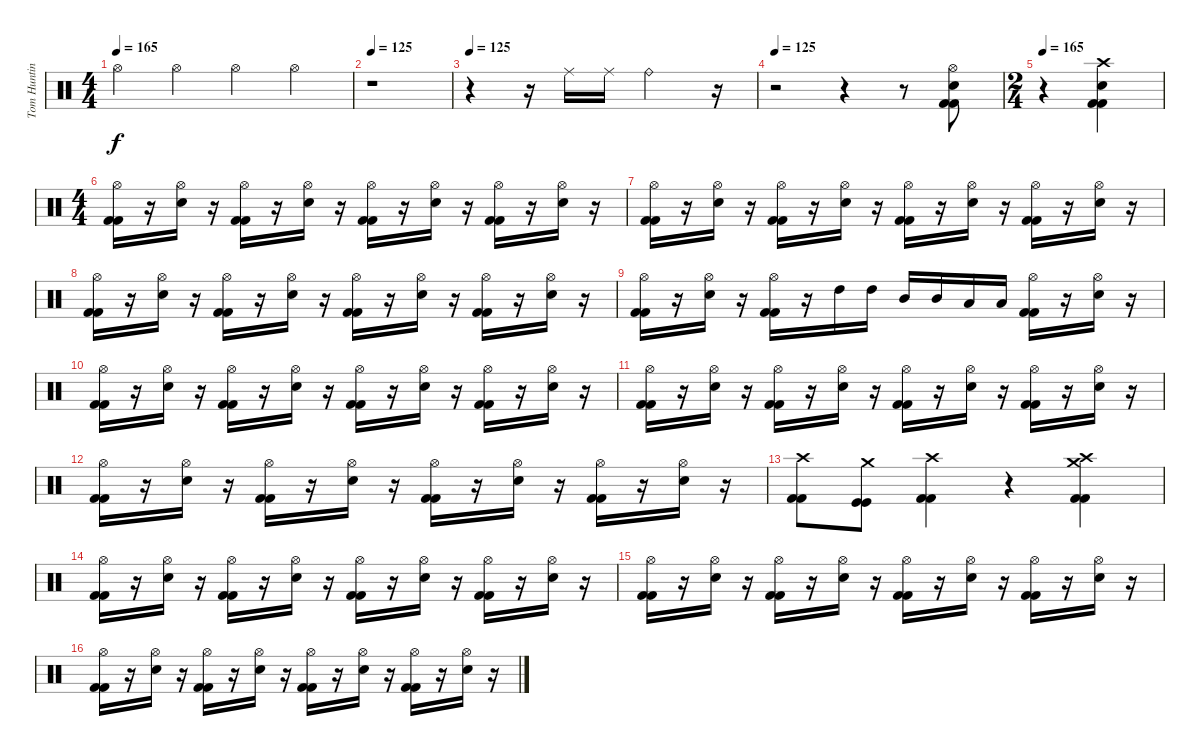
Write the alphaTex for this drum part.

\track ("Tom Hunting" "Tom Huntin") {instrument percussion}
\staff {score}
\articulation defaults
\ts (4 4)
\tempo 165
\tempo 125
\tempo 165
\clef neutral
\ks c "Hi-Hat (open)".4{dy f} "Hi-Hat (open)".4 "Hi-Hat (open)".4 "Hi-Hat (open)".4
|
\tempo 125
r.1 |
\tempo 125
r.4 r.16 "Ride (middle)".16 "Ride (middle)".16 "Ride (bell)".2 r.16 |
\tempo 125
r.2 r.4 r.8 ("Kick (hit) 2" "Kick (hit) 2" "Electric Snare (hit)" "Hi-Hat (open)").8 |
\ts (2 4)
\tempo 165
r.4 ("Kick (hit) 2" "Kick (hit) 2" "Electric Snare (hit)" "Crash high (hit)").4 |
\ts (4 4)
("Kick (hit) 2" "Kick (hit) 2" "Hi-Hat (open)").16 r.16 ("Electric Snare (hit)" "Hi-Hat (open)").16 r.16 ("Kick (hit) 2" "Kick (hit) 2" "Hi-Hat (open)").16 r.16 ("Electric Snare (hit)" "Hi-Hat (open)").16 r.16 ("Kick (hit) 2" "Kick (hit) 2" "Hi-Hat (open)").16 r.16 ("Electric Snare (hit)" "Hi-Hat (open)").16 r.16 ("Kick (hit) 2" "Kick (hit) 2" "Hi-Hat (open)").16 r.16 ("Electric Snare (hit)" "Hi-Hat (open)").16 r.16 |
("Kick (hit) 2" "Kick (hit) 2" "Hi-Hat (open)").16 r.16 ("Electric Snare (hit)" "Hi-Hat (open)").16 r.16 ("Kick (hit) 2" "Kick (hit) 2" "Hi-Hat (open)").16 r.16 ("Electric Snare (hit)" "Hi-Hat (open)").16 r.16 ("Kick (hit) 2" "Kick (hit) 2" "Hi-Hat (open)").16 r.16 ("Electric Snare (hit)" "Hi-Hat (open)").16 r.16 ("Kick (hit) 2" "Kick (hit) 2" "Hi-Hat (open)").16 r.16 ("Electric Snare (hit)" "Hi-Hat (open)").16 r.16 |
("Kick (hit) 2" "Kick (hit) 2" "Hi-Hat (open)").16 r.16 ("Electric Snare (hit)" "Hi-Hat (open)").16 r.16 ("Kick (hit) 2" "Kick (hit) 2" "Hi-Hat (open)").16 r.16 ("Electric Snare (hit)" "Hi-Hat (open)").16 r.16 ("Kick (hit) 2" "Kick (hit) 2" "Hi-Hat (open)").16 r.16 ("Electric Snare (hit)" "Hi-Hat (open)").16 r.16 ("Kick (hit) 2" "Kick (hit) 2" "Hi-Hat (open)").16 r.16 ("Electric Snare (hit)" "Hi-Hat (open)").16 r.16 |
("Kick (hit) 2" "Kick (hit) 2" "Hi-Hat (open)").16 r.16 ("Electric Snare (hit)" "Hi-Hat (open)").16 r.16 ("Kick (hit) 2" "Kick (hit) 2" "Hi-Hat (open)").16 r.16 "High Tom (hit)".16 "High Tom (hit)".16 "Mid Tom (hit)".16 "Mid Tom (hit)".16 "Low Tom (hit)".16 "Low Tom (hit)".16 ("Kick (hit) 2" "Kick (hit) 2" "Hi-Hat (open)").16 r.16 ("Electric Snare (hit)" "Hi-Hat (open)").16 r.16 |
("Kick (hit) 2" "Kick (hit) 2" "Hi-Hat (open)").16 r.16 ("Electric Snare (hit)" "Hi-Hat (open)").16 r.16 ("Kick (hit) 2" "Kick (hit) 2" "Hi-Hat (open)").16 r.16 ("Electric Snare (hit)" "Hi-Hat (open)").16 r.16 ("Kick (hit) 2" "Kick (hit) 2" "Hi-Hat (open)").16 r.16 ("Electric Snare (hit)" "Hi-Hat (open)").16 r.16 ("Kick (hit) 2" "Kick (hit) 2" "Hi-Hat (open)").16 r.16 ("Electric Snare (hit)" "Hi-Hat (open)").16 r.16 |
("Kick (hit) 2" "Kick (hit) 2" "Hi-Hat (open)").16 r.16 ("Electric Snare (hit)" "Hi-Hat (open)").16 r.16 ("Kick (hit) 2" "Kick (hit) 2" "Hi-Hat (open)").16 r.16 ("Electric Snare (hit)" "Hi-Hat (open)").16 r.16 ("Kick (hit) 2" "Kick (hit) 2" "Hi-Hat (open)").16 r.16 ("Electric Snare (hit)" "Hi-Hat (open)").16 r.16 ("Kick (hit) 2" "Kick (hit) 2" "Hi-Hat (open)").16 r.16 ("Electric Snare (hit)" "Hi-Hat (open)").16 r.16 |
("Kick (hit) 2" "Kick (hit) 2" "Hi-Hat (open)").16 r.16 ("Electric Snare (hit)" "Hi-Hat (open)").16 r.16 ("Kick (hit) 2" "Kick (hit) 2" "Hi-Hat (open)").16 r.16 ("Electric Snare (hit)" "Hi-Hat (open)").16 r.16 ("Kick (hit) 2" "Kick (hit) 2" "Hi-Hat (open)").16 r.16 ("Electric Snare (hit)" "Hi-Hat (open)").16 r.16 ("Kick (hit) 2" "Kick (hit) 2" "Hi-Hat (open)").16 r.16 ("Electric Snare (hit)" "Hi-Hat (open)").16 r.16 |
("Kick (hit) 2" "Kick (hit) 2" "Crash high (hit)").8 ("Kick (hit)" "Kick (hit)" "Crash medium (hit)").8 ("Kick (hit) 2" "Kick (hit) 2" "Crash high (hit)").4 r.4 ("Kick (hit) 2" "Kick (hit) 2" "Crash high (hit)" "Crash medium (hit)").4 |
("Kick (hit) 2" "Kick (hit) 2" "Hi-Hat (open)").16 r.16 ("Electric Snare (hit)" "Hi-Hat (open)").16 r.16 ("Kick (hit) 2" "Kick (hit) 2" "Hi-Hat (open)").16 r.16 ("Electric Snare (hit)" "Hi-Hat (open)").16 r.16 ("Kick (hit) 2" "Kick (hit) 2" "Hi-Hat (open)").16 r.16 ("Electric Snare (hit)" "Hi-Hat (open)").16 r.16 ("Kick (hit) 2" "Kick (hit) 2" "Hi-Hat (open)").16 r.16 ("Electric Snare (hit)" "Hi-Hat (open)").16 r.16 |
("Kick (hit) 2" "Kick (hit) 2" "Hi-Hat (open)").16 r.16 ("Electric Snare (hit)" "Hi-Hat (open)").16 r.16 ("Kick (hit) 2" "Kick (hit) 2" "Hi-Hat (open)").16 r.16 ("Electric Snare (hit)" "Hi-Hat (open)").16 r.16 ("Kick (hit) 2" "Kick (hit) 2" "Hi-Hat (open)").16 r.16 ("Electric Snare (hit)" "Hi-Hat (open)").16 r.16 ("Kick (hit) 2" "Kick (hit) 2" "Hi-Hat (open)").16 r.16 ("Electric Snare (hit)" "Hi-Hat (open)").16 r.16 |
("Kick (hit) 2" "Kick (hit) 2" "Hi-Hat (open)").16 r.16 ("Electric Snare (hit)" "Hi-Hat (open)").16 r.16 ("Kick (hit) 2" "Kick (hit) 2" "Hi-Hat (open)").16 r.16 ("Electric Snare (hit)" "Hi-Hat (open)").16 r.16 ("Kick (hit) 2" "Kick (hit) 2" "Hi-Hat (open)").16 r.16 ("Electric Snare (hit)" "Hi-Hat (open)").16 r.16 ("Kick (hit) 2" "Kick (hit) 2" "Hi-Hat (open)").16 r.16 ("Electric Snare (hit)" "Hi-Hat (open)").16 r.16
